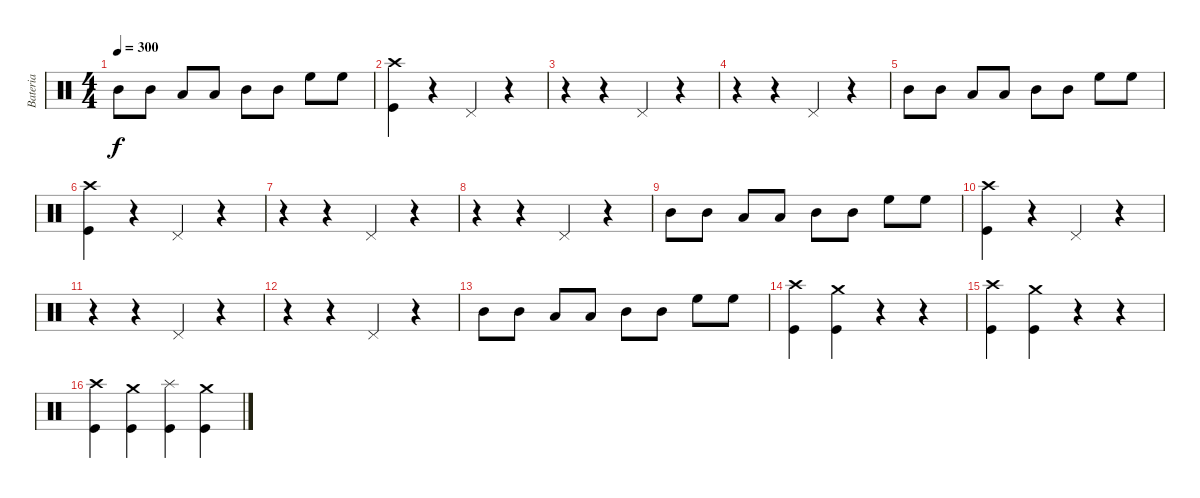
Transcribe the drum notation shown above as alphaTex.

\track ("Bateria" "Bateria") {instrument percussion}
\staff {score}
\articulation defaults
\ts (4 4)
\tempo 300
\clef neutral
\ks c "Mid Tom (hit)".8{dy f} "Mid Tom (hit)".8 "Low Tom (hit)".8 "Low Tom (hit)".8 "Mid Tom (hit)".8 "Mid Tom (hit)".8 "High Floor Tom (hit)".8 "High Floor Tom (hit)".8
|
("Crash high (hit)" "Kick (hit)").4 r.4 "Pedal Hi-Hat (hit)".4 r.4 |
r.4 r.4 "Pedal Hi-Hat (hit)".4 r.4 |
r.4 r.4 "Pedal Hi-Hat (hit)".4 r.4 |
"Mid Tom (hit)".8 "Mid Tom (hit)".8 "Low Tom (hit)".8 "Low Tom (hit)".8 "Mid Tom (hit)".8 "Mid Tom (hit)".8 "High Floor Tom (hit)".8 "High Floor Tom (hit)".8 |
("Crash high (hit)" "Kick (hit)").4 r.4 "Pedal Hi-Hat (hit)".4 r.4 |
r.4 r.4 "Pedal Hi-Hat (hit)".4 r.4 |
r.4 r.4 "Pedal Hi-Hat (hit)".4 r.4 |
"Mid Tom (hit)".8 "Mid Tom (hit)".8 "Low Tom (hit)".8 "Low Tom (hit)".8 "Mid Tom (hit)".8 "Mid Tom (hit)".8 "High Floor Tom (hit)".8 "High Floor Tom (hit)".8 |
("Crash high (hit)" "Kick (hit)").4 r.4 "Pedal Hi-Hat (hit)".4 r.4 |
r.4 r.4 "Pedal Hi-Hat (hit)".4 r.4 |
r.4 r.4 "Pedal Hi-Hat (hit)".4 r.4 |
"Mid Tom (hit)".8 "Mid Tom (hit)".8 "Low Tom (hit)".8 "Low Tom (hit)".8 "Mid Tom (hit)".8 "Mid Tom (hit)".8 "High Floor Tom (hit)".8 "High Floor Tom (hit)".8 |
("Crash high (hit)" "Kick (hit)").4 ("Crash medium (hit)" "Kick (hit)").4 r.4 r.4 |
("Crash high (hit)" "Kick (hit)").4 ("Crash medium (hit)" "Kick (hit)").4 r.4 r.4 |
("Crash high (hit)" "Kick (hit)").4 ("Crash medium (hit)" "Kick (hit)").4 ("Splash (hit)" "Kick (hit)").4 ("Crash medium (hit)" "Kick (hit)").4
